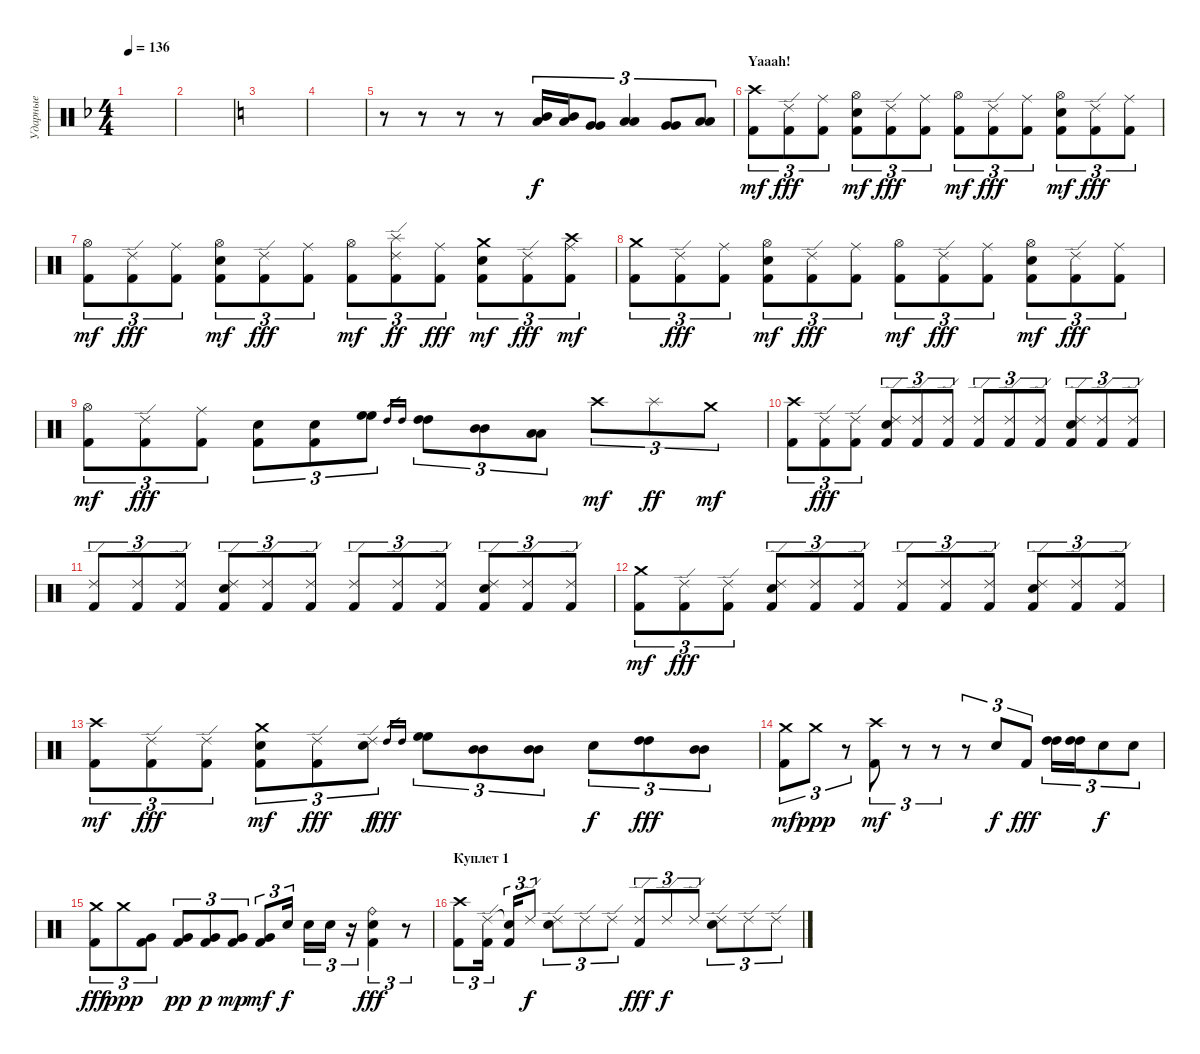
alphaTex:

\track ("Ударные" "Ударные") {instrument percussion}
\staff {score}
\articulation defaults
\ts (4 4)
\tempo 136
\clef neutral
\ks dminor
|
|
\ks c
|
|
r.8 r.8 r.8 r.8 ("Low Tom (hit)" "Mid Tom (hit)").16{tu (3 2)} ("Low Tom (hit)" "Mid Tom (hit)").16{tu (3 2)} ("Very Low Tom (hit)" "Very Low Tom (hit)").8{tu (3 2)} ("Low Floor Tom (hit)" "Low Floor Tom (hit)").4{tu (3 2)} ("Very Low Tom (hit)" "Very Low Tom (hit)").8{tu (3 2)} ("Low Floor Tom (hit)" "Low Floor Tom (hit)").8{tu (3 2)} |
\section ("" "Yaaah!")
("Kick (hit) 2" "Crash high (hit)").8{tu (3 2) dy mf} ("Kick (hit) 2" "Ride (edge) 2").8{tu (3 2) dy fff} ("Kick (hit) 2" "Ride (middle)").8{tu (3 2)} ("Kick (hit) 2" "Hi-Hat (open)" "Electric Snare (hit)").8{tu (3 2) dy mf} ("Kick (hit) 2" "Ride (edge) 2").8{tu (3 2) dy fff} ("Kick (hit) 2" "Ride (middle)").8{tu (3 2)} ("Kick (hit) 2" "Hi-Hat (open)").8{tu (3 2) dy mf} ("Kick (hit) 2" "Ride (edge) 2").8{tu (3 2) dy fff} ("Kick (hit) 2" "Ride (middle)").8{tu (3 2)} ("Kick (hit) 2" "Hi-Hat (open)" "Electric Snare (hit)").8{tu (3 2) dy mf} ("Kick (hit) 2" "Ride (edge) 2").8{tu (3 2) dy fff} ("Kick (hit) 2" "Ride (middle)").8{tu (3 2)} |
("Kick (hit) 2" "Hi-Hat (open)").8{tu (3 2) dy mf} ("Kick (hit) 2" "Ride (edge) 2").8{tu (3 2) dy fff} ("Kick (hit) 2" "Ride (middle)").8{tu (3 2)} ("Kick (hit) 2" "Hi-Hat (open)" "Electric Snare (hit)").8{tu (3 2) dy mf} ("Kick (hit) 2" "Ride (edge) 2").8{tu (3 2) dy fff} ("Kick (hit) 2" "Ride (middle)").8{tu (3 2)} ("Kick (hit) 2" "Hi-Hat (open)").8{tu (3 2) dy mf} ("Kick (hit) 2" "Ride (edge) 2" "Splash (hit)").8{tu (3 2) dy ff} ("Kick (hit) 2" "Ride (middle)").8{tu (3 2) dy fff} ("Kick (hit) 2" "Electric Snare (hit)" "Crash medium (hit)").8{tu (3 2) dy mf} ("Kick (hit) 2" "Ride (edge) 2").8{tu (3 2) dy fff} ("Kick (hit) 2" "Ride (middle)" "Crash high (hit)").8{tu (3 2) dy mf} |
("Kick (hit) 2" "Crash medium (hit)").8{tu (3 2)} ("Kick (hit) 2" "Ride (edge) 2").8{tu (3 2) dy fff} ("Kick (hit) 2" "Ride (middle)").8{tu (3 2)} ("Kick (hit) 2" "Hi-Hat (open)" "Electric Snare (hit)").8{tu (3 2) dy mf} ("Kick (hit) 2" "Ride (edge) 2").8{tu (3 2) dy fff} ("Kick (hit) 2" "Ride (middle)").8{tu (3 2)} ("Kick (hit) 2" "Hi-Hat (open)").8{tu (3 2) dy mf} ("Kick (hit) 2" "Ride (edge) 2").8{tu (3 2) dy fff} ("Kick (hit) 2" "Ride (middle)").8{tu (3 2)} ("Kick (hit) 2" "Hi-Hat (open)" "Electric Snare (hit)").8{tu (3 2) dy mf} ("Kick (hit) 2" "Ride (edge) 2").8{tu (3 2) dy fff} ("Kick (hit) 2" "Ride (middle)").8{tu (3 2)} |
("Kick (hit) 2" "Hi-Hat (open)").8{tu (3 2) dy mf} ("Kick (hit) 2" "Ride (edge) 2").8{tu (3 2) dy fff} ("Kick (hit) 2" "Ride (middle)").8{tu (3 2)} ("Kick (hit) 2" "Electric Snare (hit)").8{tu (3 2)} ("Kick (hit) 2" "Electric Snare (hit)").8{tu (3 2)} ("High Floor Tom (hit)" "High Floor Tom (hit)").8{tu (3 2)} "High Tom (hit)".16{gr} "High Tom (hit)".16{gr} ("High Tom (hit)" "High Tom (hit)").8{tu (3 2)} ("Mid Tom (hit)" "Mid Tom (hit)").8{tu (3 2)} ("Low Tom (hit)" "Low Tom (hit)").8{tu (3 2)} "Crash high (hit)".8{tu (3 2) dy mf} "Splash (hit)".8{tu (3 2) dy ff} "Crash medium (hit)".8{tu (3 2) dy mf} |
("Kick (hit) 2" "Crash high (hit)").8{tu (3 2)} ("Kick (hit) 2" "Ride (edge) 2").8{tu (3 2) dy fff} ("Kick (hit) 2" "Ride (edge) 2").8{tu (3 2)} ("Kick (hit) 2" "Electric Snare (hit)" "Ride (edge) 2").8{tu (3 2)} ("Kick (hit) 2" "Ride (edge) 2").8{tu (3 2)} ("Kick (hit) 2" "Ride (edge) 2").8{tu (3 2)} ("Kick (hit) 2" "Ride (edge) 2").8{tu (3 2)} ("Kick (hit) 2" "Ride (edge) 2").8{tu (3 2)} ("Kick (hit) 2" "Ride (edge) 2").8{tu (3 2)} ("Kick (hit) 2" "Electric Snare (hit)" "Ride (edge) 2").8{tu (3 2)} ("Kick (hit) 2" "Ride (edge) 2").8{tu (3 2)} ("Kick (hit) 2" "Ride (edge) 2").8{tu (3 2)} |
("Kick (hit) 2" "Ride (edge) 2").8{tu (3 2)} ("Kick (hit) 2" "Ride (edge) 2").8{tu (3 2)} ("Kick (hit) 2" "Ride (edge) 2").8{tu (3 2)} ("Kick (hit) 2" "Electric Snare (hit)" "Ride (edge) 2").8{tu (3 2)} ("Kick (hit) 2" "Ride (edge) 2").8{tu (3 2)} ("Kick (hit) 2" "Ride (edge) 2").8{tu (3 2)} ("Kick (hit) 2" "Ride (edge) 2").8{tu (3 2)} ("Kick (hit) 2" "Ride (edge) 2").8{tu (3 2)} ("Kick (hit) 2" "Ride (edge) 2").8{tu (3 2)} ("Kick (hit) 2" "Electric Snare (hit)" "Ride (edge) 2").8{tu (3 2)} ("Kick (hit) 2" "Ride (edge) 2").8{tu (3 2)} ("Kick (hit) 2" "Ride (edge) 2").8{tu (3 2)} |
("Kick (hit) 2" "Crash medium (hit)").8{tu (3 2) dy mf} ("Kick (hit) 2" "Ride (edge) 2").8{tu (3 2) dy fff} ("Kick (hit) 2" "Ride (edge) 2").8{tu (3 2)} ("Kick (hit) 2" "Electric Snare (hit)" "Ride (edge) 2").8{tu (3 2)} ("Kick (hit) 2" "Ride (edge) 2").8{tu (3 2)} ("Kick (hit) 2" "Ride (edge) 2").8{tu (3 2)} ("Kick (hit) 2" "Ride (edge) 2").8{tu (3 2)} ("Kick (hit) 2" "Ride (edge) 2").8{tu (3 2)} ("Kick (hit) 2" "Ride (edge) 2").8{tu (3 2)} ("Kick (hit) 2" "Electric Snare (hit)" "Ride (edge) 2").8{tu (3 2)} ("Kick (hit) 2" "Ride (edge) 2").8{tu (3 2)} ("Kick (hit) 2" "Ride (edge) 2").8{tu (3 2)} |
("Kick (hit) 2" "Crash high (hit)").8{tu (3 2) dy mf} ("Kick (hit) 2" "Ride (edge) 2").8{tu (3 2) dy fff} ("Kick (hit) 2" "Ride (edge) 2").8{tu (3 2)} ("Kick (hit) 2" "Electric Snare (hit)" "Crash medium (hit)").8{tu (3 2) dy mf} ("Kick (hit) 2" "Ride (edge) 2").8{tu (3 2) dy fff} ("Electric Snare (hit)" "Ride (edge) 2").8{tu (3 2) dy f} "High Tom (hit)".16{gr dy fff} "High Tom (hit)".16{gr} ("High Floor Tom (hit)" "High Floor Tom (hit)").8{tu (3 2)} ("Mid Tom (hit)" "Mid Tom (hit)").8{tu (3 2)} ("Mid Tom (hit)" "Mid Tom (hit)").8{tu (3 2)} "Electric Snare (hit)".8{tu (3 2) dy f} ("High Tom (hit)" "High Tom (hit)").8{tu (3 2) dy fff} ("Mid Tom (hit)" "Mid Tom (hit)").8{tu (3 2)} |
("Kick (hit) 2" "Crash medium (hit)").8{tu (3 2) dy mf} "Crash medium (hit)".8{tu (3 2) dy ppp} r.8{tu (3 2)} ("Kick (hit) 2" "Crash high (hit)").8{tu (3 2) dy mf} r.8{tu (3 2)} r.8{tu (3 2)} r.8{tu (3 2)} "Electric Snare (hit)".8{tu (3 2) dy f} "Kick (hit) 2".8{tu (3 2) dy fff} ("High Tom (hit)" "High Tom (hit)").16{tu (3 2)} ("High Tom (hit)" "High Tom (hit)").16{tu (3 2)} "Electric Snare (hit)".8{tu (3 2) dy f} "Electric Snare (hit)".8{tu (3 2)} |
("Crash medium (hit)" "Kick (hit) 2").8{tu (3 2) dy fff} "Crash medium (hit)".8{tu (3 2) dy ppp} ("Kick (hit) 2" "Very Low Tom (hit)").8{tu (3 2)} ("Kick (hit) 2" "Very Low Tom (hit)").8{tu (3 2) dy pp} ("Kick (hit) 2" "Very Low Tom (hit)").8{tu (3 2) dy p} ("Kick (hit) 2" "Very Low Tom (hit)").8{tu (3 2) dy mp} ("Kick (hit) 2" "Very Low Tom (hit)").8{tu (3 2) dy mf} "Electric Snare (hit)".16{tu (3 2) dy f} "Electric Snare (hit)".16{tu (3 2)} "Electric Snare (hit)".16{tu (3 2)} r.16{tu (3 2)} ("Electric Snare (hit)" "Ride (bell)" "Kick (hit) 2").4{tu (3 2) dy fff} r.8{tu (3 2)} |
\section ("" "Куплет 1")
("Crash high (hit)" "Kick (hit) 2").8{tu (3 2)} ("Ride (edge) 2" "Kick (hit) 2").16{tu (3 2)} ("Snare (hit)"{t} "Kick (hit) 2").16{tu (3 2)} "Ride (edge) 2".8{tu (3 2) dy f} ("Ride (edge) 2" "Electric Snare (hit)").8{tu (3 2)} "Ride (edge) 2".8{tu (3 2)} "Ride (edge) 2".8{tu (3 2)} ("Ride (edge) 2" "Kick (hit) 2").8{tu (3 2) dy fff} "Ride (edge) 2".8{tu (3 2) dy f} "Ride (edge) 2".8{tu (3 2)} ("Ride (edge) 2" "Electric Snare (hit)").8{tu (3 2)} "Ride (edge) 2".8{tu (3 2)} "Ride (edge) 2".8{tu (3 2)}
